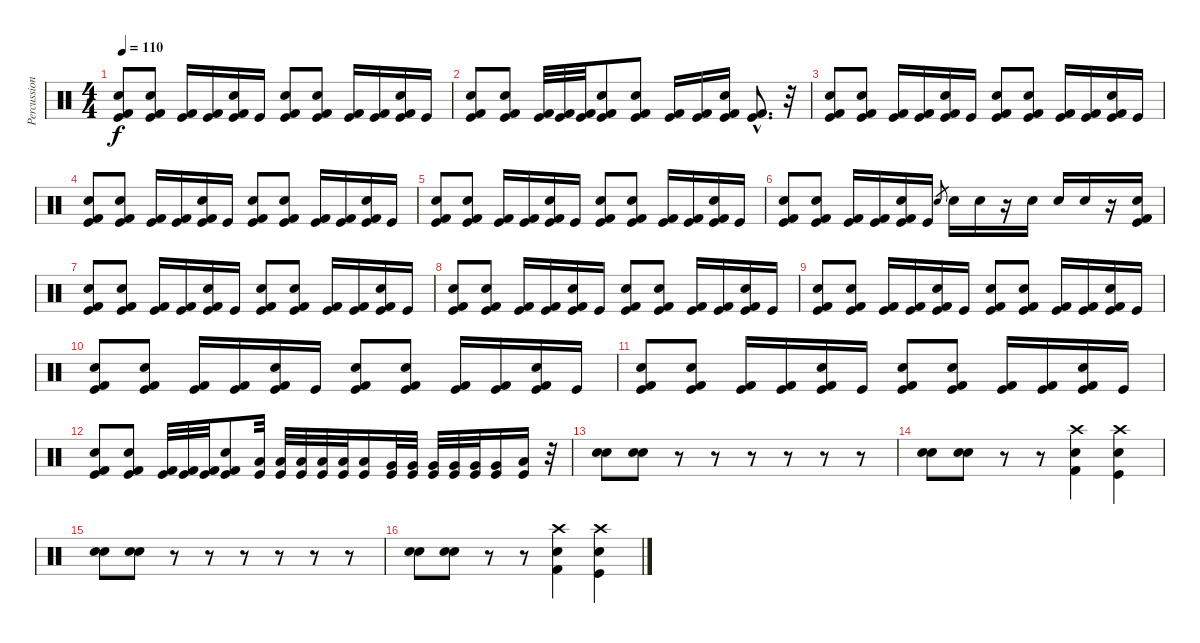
\track ("Percussion" "Percussion") {instrument percussion}
\staff {score}
\articulation defaults
\ts (4 4)
\tempo 110
\clef neutral
\ks c
("Snare (hit) 2" "Kick (hit)" "Kick (hit) 2").8{dy f} ("Electric Snare (hit)" "Kick (hit)" "Kick (hit) 2").8 ("Kick (hit)" "Kick (hit) 2").16 ("Kick (hit)" "Kick (hit) 2").16 ("Electric Snare (hit)" "Kick (hit)" "Kick (hit) 2").16 "Kick (hit)".16 ("Snare (hit) 2" "Kick (hit)" "Kick (hit) 2").8 ("Electric Snare (hit)" "Kick (hit)" "Kick (hit) 2").8 ("Kick (hit)" "Kick (hit) 2").16 ("Kick (hit)" "Kick (hit) 2").16 ("Electric Snare (hit)" "Kick (hit)" "Kick (hit) 2").16 "Kick (hit)".16 |
("Snare (hit) 2" "Kick (hit)" "Kick (hit) 2").8 ("Electric Snare (hit)" "Kick (hit)" "Kick (hit) 2").8 ("Kick (hit)" "Kick (hit) 2").32 ("Kick (hit)" "Kick (hit) 2").32 ("Kick (hit)" "Kick (hit) 2").32 ("Electric Snare (hit)" "Kick (hit)" "Kick (hit) 2").8 ("Snare (hit) 2" "Kick (hit)" "Kick (hit) 2").8 ("Kick (hit)" "Kick (hit) 2").16 ("Kick (hit)" "Kick (hit) 2").16 ("Electric Snare (hit)" "Kick (hit)" "Kick (hit) 2").16 ("Kick (hit)"{hac} "Kick (hit) 2"{hac}).8{d} r.32 |
("Snare (hit) 2" "Kick (hit)" "Kick (hit) 2").8 ("Electric Snare (hit)" "Kick (hit)" "Kick (hit) 2").8 ("Kick (hit)" "Kick (hit) 2").16 ("Kick (hit)" "Kick (hit) 2").16 ("Electric Snare (hit)" "Kick (hit)" "Kick (hit) 2").16 "Kick (hit)".16 ("Snare (hit) 2" "Kick (hit)" "Kick (hit) 2").8 ("Electric Snare (hit)" "Kick (hit)" "Kick (hit) 2").8 ("Kick (hit)" "Kick (hit) 2").16 ("Kick (hit)" "Kick (hit) 2").16 ("Electric Snare (hit)" "Kick (hit)" "Kick (hit) 2").16 "Kick (hit)".16 |
("Snare (hit) 2" "Kick (hit)" "Kick (hit) 2").8 ("Electric Snare (hit)" "Kick (hit)" "Kick (hit) 2").8 ("Kick (hit)" "Kick (hit) 2").16 ("Kick (hit)" "Kick (hit) 2").16 ("Electric Snare (hit)" "Kick (hit)" "Kick (hit) 2").16 "Kick (hit)".16 ("Snare (hit) 2" "Kick (hit)" "Kick (hit) 2").8 ("Electric Snare (hit)" "Kick (hit)" "Kick (hit) 2").8 ("Kick (hit)" "Kick (hit) 2").16 ("Kick (hit)" "Kick (hit) 2").16 ("Electric Snare (hit)" "Kick (hit)" "Kick (hit) 2").16 "Kick (hit)".16 |
("Snare (hit) 2" "Kick (hit)" "Kick (hit) 2").8 ("Electric Snare (hit)" "Kick (hit)" "Kick (hit) 2").8 ("Kick (hit)" "Kick (hit) 2").16 ("Kick (hit)" "Kick (hit) 2").16 ("Electric Snare (hit)" "Kick (hit)" "Kick (hit) 2").16 "Kick (hit)".16 ("Snare (hit) 2" "Kick (hit)" "Kick (hit) 2").8 ("Electric Snare (hit)" "Kick (hit)" "Kick (hit) 2").8 ("Kick (hit)" "Kick (hit) 2").16 ("Kick (hit)" "Kick (hit) 2").16 ("Electric Snare (hit)" "Kick (hit)" "Kick (hit) 2").16 "Kick (hit)".16 |
("Snare (hit) 2" "Kick (hit)" "Kick (hit) 2").8 ("Electric Snare (hit)" "Kick (hit)" "Kick (hit) 2").8 ("Kick (hit)" "Kick (hit) 2").16 ("Kick (hit)" "Kick (hit) 2").16 ("Electric Snare (hit)" "Kick (hit)" "Kick (hit) 2").16 "Kick (hit)".16 "Electric Snare (hit)".8{gr} "Electric Snare (hit)".16 "Electric Snare (hit)".16 r.16 "Electric Snare (hit)".16 "Electric Snare (hit)".16 "Electric Snare (hit)".16 r.16 ("Electric Snare (hit)" "Kick (hit) 2" "Kick (hit)").16 |
("Snare (hit) 2" "Kick (hit)" "Kick (hit) 2").8 ("Electric Snare (hit)" "Kick (hit)" "Kick (hit) 2").8 ("Kick (hit)" "Kick (hit) 2").16 ("Kick (hit)" "Kick (hit) 2").16 ("Electric Snare (hit)" "Kick (hit)" "Kick (hit) 2").16 "Kick (hit)".16 ("Snare (hit) 2" "Kick (hit)" "Kick (hit) 2").8 ("Electric Snare (hit)" "Kick (hit)" "Kick (hit) 2").8 ("Kick (hit)" "Kick (hit) 2").16 ("Kick (hit)" "Kick (hit) 2").16 ("Electric Snare (hit)" "Kick (hit)" "Kick (hit) 2").16 "Kick (hit)".16 |
("Snare (hit) 2" "Kick (hit)" "Kick (hit) 2").8 ("Electric Snare (hit)" "Kick (hit)" "Kick (hit) 2").8 ("Kick (hit)" "Kick (hit) 2").16 ("Kick (hit)" "Kick (hit) 2").16 ("Electric Snare (hit)" "Kick (hit)" "Kick (hit) 2").16 "Kick (hit)".16 ("Snare (hit) 2" "Kick (hit)" "Kick (hit) 2").8 ("Electric Snare (hit)" "Kick (hit)" "Kick (hit) 2").8 ("Kick (hit)" "Kick (hit) 2").16 ("Kick (hit)" "Kick (hit) 2").16 ("Electric Snare (hit)" "Kick (hit)" "Kick (hit) 2").16 "Kick (hit)".16 |
("Snare (hit) 2" "Kick (hit)" "Kick (hit) 2").8 ("Electric Snare (hit)" "Kick (hit)" "Kick (hit) 2").8 ("Kick (hit)" "Kick (hit) 2").16 ("Kick (hit)" "Kick (hit) 2").16 ("Electric Snare (hit)" "Kick (hit)" "Kick (hit) 2").16 "Kick (hit)".16 ("Snare (hit) 2" "Kick (hit)" "Kick (hit) 2").8 ("Electric Snare (hit)" "Kick (hit)" "Kick (hit) 2").8 ("Kick (hit)" "Kick (hit) 2").16 ("Kick (hit)" "Kick (hit) 2").16 ("Electric Snare (hit)" "Kick (hit)" "Kick (hit) 2").16 "Kick (hit)".16 |
("Snare (hit) 2" "Kick (hit)" "Kick (hit) 2").8 ("Electric Snare (hit)" "Kick (hit)" "Kick (hit) 2").8 ("Kick (hit)" "Kick (hit) 2").16 ("Kick (hit)" "Kick (hit) 2").16 ("Electric Snare (hit)" "Kick (hit)" "Kick (hit) 2").16 "Kick (hit)".16 ("Snare (hit) 2" "Kick (hit)" "Kick (hit) 2").8 ("Electric Snare (hit)" "Kick (hit)" "Kick (hit) 2").8 ("Kick (hit)" "Kick (hit) 2").16 ("Kick (hit)" "Kick (hit) 2").16 ("Electric Snare (hit)" "Kick (hit)" "Kick (hit) 2").16 "Kick (hit)".16 |
("Snare (hit) 2" "Kick (hit)" "Kick (hit) 2").8 ("Electric Snare (hit)" "Kick (hit)" "Kick (hit) 2").8 ("Kick (hit)" "Kick (hit) 2").16 ("Kick (hit)" "Kick (hit) 2").16 ("Electric Snare (hit)" "Kick (hit)" "Kick (hit) 2").16 "Kick (hit)".16 ("Snare (hit) 2" "Kick (hit)" "Kick (hit) 2").8 ("Electric Snare (hit)" "Kick (hit)" "Kick (hit) 2").8 ("Kick (hit)" "Kick (hit) 2").16 ("Kick (hit)" "Kick (hit) 2").16 ("Electric Snare (hit)" "Kick (hit)" "Kick (hit) 2").16 "Kick (hit)".16 |
("Snare (hit) 2" "Kick (hit)" "Kick (hit) 2").8 ("Electric Snare (hit)" "Kick (hit)" "Kick (hit) 2").8 ("Kick (hit)" "Kick (hit) 2").32 ("Kick (hit)" "Kick (hit) 2").32 ("Kick (hit)" "Kick (hit) 2").32 ("Electric Snare (hit)" "Kick (hit)" "Kick (hit) 2").8 ("Low Tom (hit)" "Kick (hit)").32 ("Low Tom (hit)" "Kick (hit)").32 ("Low Tom (hit)" "Kick (hit)").32 ("Low Tom (hit)" "Kick (hit)").32 ("Low Tom (hit)" "Kick (hit)").32 ("Low Tom (hit)" "Kick (hit)").16 ("Very Low Tom (hit)" "Kick (hit)").32 ("Very Low Tom (hit)" "Kick (hit)").32 ("Very Low Tom (hit)" "Kick (hit)").32 ("Very Low Tom (hit)" "Kick (hit)").32 ("Very Low Tom (hit)" "Kick (hit)").32 ("Very Low Tom (hit)" "Kick (hit)").16 ("Low Floor Tom (hit)" "Kick (hit)").16 r.32 |
("Electric Snare (hit)" "Electric Snare (hit)").8 ("Electric Snare (hit)" "Electric Snare (hit)").8 r.8 r.8 r.8 r.8 r.8 r.8 |
("Electric Snare (hit)" "Electric Snare (hit)").8 ("Electric Snare (hit)" "Electric Snare (hit)").8 r.8 r.8 ("Crash high (hit)" "Snare (hit) 2" "Kick (hit) 2").4 ("Crash high (hit)" "Snare (hit) 2" "Kick (hit)").4 |
("Electric Snare (hit)" "Electric Snare (hit)").8 ("Electric Snare (hit)" "Electric Snare (hit)").8 r.8 r.8 r.8 r.8 r.8 r.8 |
("Electric Snare (hit)" "Electric Snare (hit)").8 ("Electric Snare (hit)" "Electric Snare (hit)").8 r.8 r.8 ("Crash high (hit)" "Snare (hit) 2" "Kick (hit) 2").4 ("Crash high (hit)" "Snare (hit) 2" "Kick (hit)").4
